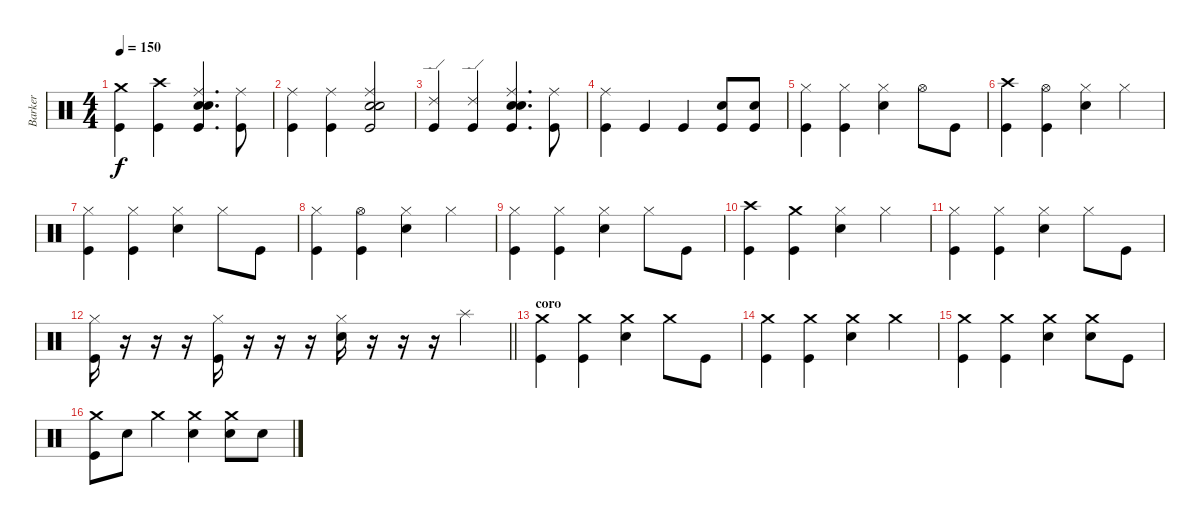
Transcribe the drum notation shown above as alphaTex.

\track ("Barker" "Barker") {instrument percussion}
\staff {score}
\articulation defaults
\ts (4 4)
\tempo 150
\clef neutral
\ks c
("Crash medium (hit)" "Kick (hit)").4{dy f} ("Crash high (hit)" "Kick (hit)").4 ("Ride (middle)" "Hand Clap (hit)" "Electric Snare (hit)" "Kick (hit)").4{d} ("Ride (middle)" "Kick (hit)").8 |
("Kick (hit)" "Ride (middle)").4 ("Kick (hit)" "Ride (middle)").4 ("Ride (middle)" "Hand Clap (hit)" "Electric Snare (hit)" "Kick (hit)").2 |
("Ride (edge) 2" "Kick (hit)").4 ("Ride (edge) 2" "Kick (hit)").4 ("Ride (middle)" "Hand Clap (hit)" "Electric Snare (hit)" "Kick (hit)").4{d} ("Ride (middle)" "Kick (hit)").8 |
("Kick (hit)" "Ride (middle)").4 "Kick (hit)".4 "Kick (hit)".4 ("Kick (hit)" "Electric Snare (hit)").8 ("Kick (hit)" "Electric Snare (hit)").8 |
("Hi-Hat (closed)" "Kick (hit)").4 ("Hi-Hat (closed)" "Kick (hit)").4 ("Hi-Hat (closed)" "Electric Snare (hit)").4 "Hi-Hat (open)".8 "Kick (hit)".8 |
("Crash high (hit)" "Kick (hit)").4 ("Hi-Hat (open)" "Kick (hit)").4 ("Hi-Hat (closed)" "Electric Snare (hit)").4 "Hi-Hat (closed)".4 |
("Hi-Hat (closed)" "Kick (hit)").4 ("Hi-Hat (closed)" "Kick (hit)").4 ("Hi-Hat (closed)" "Electric Snare (hit)").4 "Hi-Hat (closed)".8 "Kick (hit)".8 |
("Hi-Hat (closed)" "Kick (hit)").4 ("Hi-Hat (open)" "Kick (hit)").4 ("Hi-Hat (closed)" "Electric Snare (hit)").4 "Hi-Hat (closed)".4 |
("Hi-Hat (closed)" "Kick (hit)").4 ("Hi-Hat (closed)" "Kick (hit)").4 ("Hi-Hat (closed)" "Electric Snare (hit)").4 "Hi-Hat (closed)".8 "Kick (hit)".8 |
("Crash high (hit)" "Kick (hit)").4 ("Crash medium (hit)" "Kick (hit)").4 ("Hi-Hat (closed)" "Electric Snare (hit)").4 "Hi-Hat (closed)".4 |
("Hi-Hat (closed)" "Kick (hit)").4 ("Hi-Hat (closed)" "Kick (hit)").4 ("Hi-Hat (closed)" "Electric Snare (hit)").4 "Hi-Hat (closed)".8 "Kick (hit)".8 |
\barLineRight lightlight
("Hi-Hat (closed)" "Kick (hit)").16 r.16 r.16 r.16 ("Hi-Hat (closed)" "Kick (hit)").16 r.16 r.16 r.16 ("Hi-Hat (closed)" "Electric Snare (hit)").16 r.16 r.16 r.16 "Splash (hit)".4 |
\section ("" "coro")
("Crash medium (hit)" "Kick (hit)").4 ("Crash medium (hit)" "Kick (hit)").4 ("Crash medium (hit)" "Electric Snare (hit)").4 "Crash medium (hit)".8 "Kick (hit)".8 |
("Crash medium (hit)" "Kick (hit)").4 ("Crash medium (hit)" "Kick (hit)").4 ("Crash medium (hit)" "Electric Snare (hit)").4 "Crash medium (hit)".4 |
("Crash medium (hit)" "Kick (hit)").4 ("Crash medium (hit)" "Kick (hit)").4 ("Crash medium (hit)" "Electric Snare (hit)").4 ("Crash medium (hit)" "Electric Snare (hit)").8 "Kick (hit)".8 |
("Crash medium (hit)" "Kick (hit)").8 "Electric Snare (hit)".8 "Crash medium (hit)".4 ("Crash medium (hit)" "Electric Snare (hit)").4 ("Electric Snare (hit)" "Crash medium (hit)").8 "Electric Snare (hit)".8
